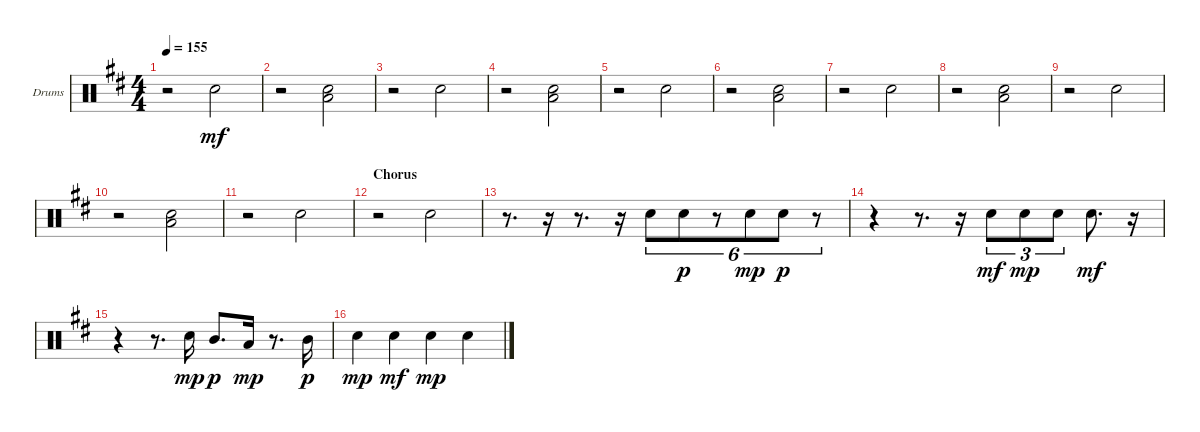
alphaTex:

\bracketExtendMode groupsimilarinstruments
\firstSystemTrackNameOrientation horizontal
\otherSystemsTrackNameOrientation horizontal
\track ("Drums" "Drums") {instrument percussion}
\staff {score}
\articulation defaults
\ts (4 4)
\tempo 155
\clef neutral
\ks d
r.2{dy mf} "Snare (hit) 2".2 |
r.2 ("Snare (hit) 2" "Low Tom (hit)").2 |
r.2 "Snare (hit) 2".2 |
r.2 ("Snare (hit) 2" "Low Tom (hit)").2 |
r.2 "Snare (hit) 2".2 |
r.2 ("Snare (hit) 2" "Low Tom (hit)").2 |
r.2 "Snare (hit) 2".2 |
r.2 ("Snare (hit) 2" "Low Tom (hit)").2 |
r.2 "Snare (hit) 2".2 |
r.2 ("Snare (hit) 2" "Low Tom (hit)").2 |
r.2 "Snare (hit) 2".2 |
\section ("" "Chorus")
r.2 "Snare (hit) 2".2 |
r.8{d} r.16 r.8{d} r.16 "Snare (hit) 2".8{tu (6 4)} "Snare (hit) 2".8{tu (6 4) dy p} r.8{tu (6 4)} "Snare (hit) 2".8{tu (6 4) dy mp} "Snare (hit) 2".8{tu (6 4) dy p} r.8{tu (6 4)} |
r.4 r.8{d} r.16 "Snare (hit) 2".8{tu (3 2) dy mf} "Snare (hit) 2".8{tu (3 2) dy mp} "Snare (hit) 2".8{tu (3 2)} "Snare (hit) 2".8{d dy mf} r.16 |
r.4 r.8{d} "Snare (hit) 2".16{dy mp} "Mid Tom (hit)".8{d dy p} "Low Tom (hit)".16{dy mp} r.8{d} "Mid Tom (hit)".16{dy p} |
"Snare (hit) 2".4{dy mp} "Snare (hit) 2".4{dy mf} "Snare (hit) 2".4{dy mp} "Snare (hit) 2".4
